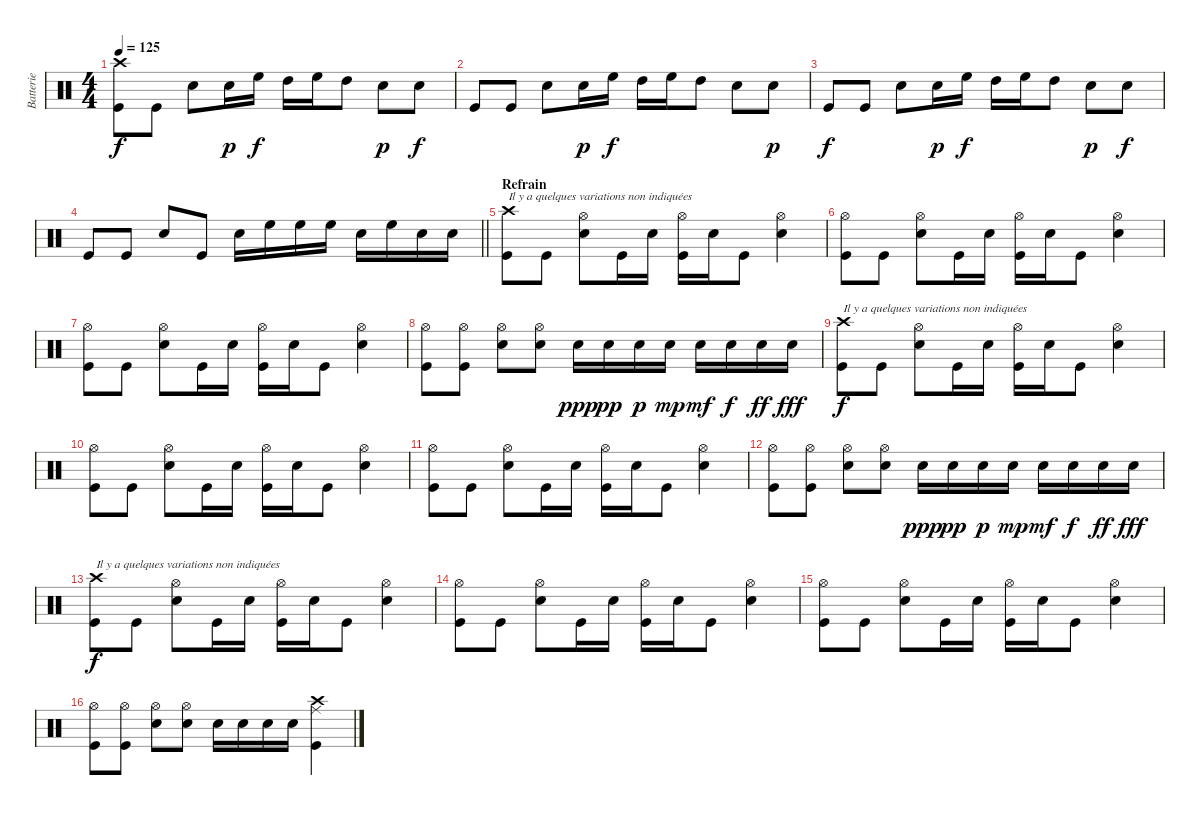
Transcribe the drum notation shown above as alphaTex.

\track ("Batterie" "Batterie") {instrument percussion}
\staff {score}
\articulation defaults
\ts (4 4)
\tempo 125
\clef neutral
\ks c
("Kick (hit)" "Crash high (hit)").8{dy f} "Kick (hit)".8 "Snare (hit) 2".8 "Snare (hit) 2".16{dy p} "High Floor Tom (hit)".16{dy f} "High Tom (hit)".16 "High Floor Tom (hit)".16 "High Tom (hit)".8 "Snare (hit) 2".8{dy p} "Snare (hit) 2".8{dy f} |
"Kick (hit)".8 "Kick (hit)".8 "Snare (hit) 2".8 "Snare (hit) 2".16{dy p} "High Floor Tom (hit)".16{dy f} "High Tom (hit)".16 "High Floor Tom (hit)".16 "High Tom (hit)".8 "Snare (hit) 2".8 "Snare (hit) 2".8{dy p} |
"Kick (hit)".8{dy f} "Kick (hit)".8 "Snare (hit) 2".8 "Snare (hit) 2".16{dy p} "High Floor Tom (hit)".16{dy f} "High Tom (hit)".16 "High Floor Tom (hit)".16 "High Tom (hit)".8 "Snare (hit) 2".8{dy p} "Snare (hit) 2".8{dy f} |
\barLineRight lightlight "Kick (hit)".8 "Kick (hit)".8 "Snare (hit) 2".8 "Kick (hit)".8 "Snare (hit) 2".16 "High Floor Tom (hit)".16 "High Floor Tom (hit)".16 "High Floor Tom (hit)".16 "Snare (hit) 2".16 "High Floor Tom (hit)".16 "Snare (hit) 2".16 "Snare (hit) 2".16
|
\section ("" "Refrain")
("Crash high (hit)" "Kick (hit)").8{txt "Il y a quelques variations non indiquées"} "Kick (hit)".8 ("Snare (hit) 2" "Hi-Hat (open)").8 "Kick (hit)".16 "Snare (hit) 2".16 ("Kick (hit)" "Hi-Hat (open)").16 "Snare (hit) 2".16 "Kick (hit)".8 ("Snare (hit) 2" "Hi-Hat (open)").4 |
("Hi-Hat (open)" "Kick (hit)").8 "Kick (hit)".8 ("Snare (hit) 2" "Hi-Hat (open)").8 "Kick (hit)".16 "Snare (hit) 2".16 ("Kick (hit)" "Hi-Hat (open)").16 "Snare (hit) 2".16 "Kick (hit)".8 ("Snare (hit) 2" "Hi-Hat (open)").4 |
("Hi-Hat (open)" "Kick (hit)").8 "Kick (hit)".8 ("Snare (hit) 2" "Hi-Hat (open)").8 "Kick (hit)".16 "Snare (hit) 2".16 ("Kick (hit)" "Hi-Hat (open)").16 "Snare (hit) 2".16 "Kick (hit)".8 ("Snare (hit) 2" "Hi-Hat (open)").4 |
("Hi-Hat (open)" "Kick (hit)").8 ("Kick (hit)" "Hi-Hat (open)").8 ("Snare (hit) 2" "Hi-Hat (open)").8 ("Hi-Hat (open)" "Snare (hit) 2").8 "Snare (hit) 2".16{dy ppp} "Snare (hit) 2".16{dy pp} "Snare (hit) 2".16{dy p} "Snare (hit) 2".16{dy mp} "Snare (hit) 2".16{dy mf} "Snare (hit) 2".16{dy f} "Snare (hit) 2".16{dy ff} "Snare (hit) 2".16{dy fff} |
("Crash high (hit)" "Kick (hit)").8{txt "Il y a quelques variations non indiquées" dy f} "Kick (hit)".8 ("Snare (hit) 2" "Hi-Hat (open)").8 "Kick (hit)".16 "Snare (hit) 2".16 ("Kick (hit)" "Hi-Hat (open)").16 "Snare (hit) 2".16 "Kick (hit)".8 ("Snare (hit) 2" "Hi-Hat (open)").4 |
("Hi-Hat (open)" "Kick (hit)").8 "Kick (hit)".8 ("Snare (hit) 2" "Hi-Hat (open)").8 "Kick (hit)".16 "Snare (hit) 2".16 ("Kick (hit)" "Hi-Hat (open)").16 "Snare (hit) 2".16 "Kick (hit)".8 ("Snare (hit) 2" "Hi-Hat (open)").4 |
("Hi-Hat (open)" "Kick (hit)").8 "Kick (hit)".8 ("Snare (hit) 2" "Hi-Hat (open)").8 "Kick (hit)".16 "Snare (hit) 2".16 ("Kick (hit)" "Hi-Hat (open)").16 "Snare (hit) 2".16 "Kick (hit)".8 ("Snare (hit) 2" "Hi-Hat (open)").4 |
("Hi-Hat (open)" "Kick (hit)").8 ("Kick (hit)" "Hi-Hat (open)").8 ("Snare (hit) 2" "Hi-Hat (open)").8 ("Hi-Hat (open)" "Snare (hit) 2").8 "Snare (hit) 2".16{dy ppp} "Snare (hit) 2".16{dy pp} "Snare (hit) 2".16{dy p} "Snare (hit) 2".16{dy mp} "Snare (hit) 2".16{dy mf} "Snare (hit) 2".16{dy f} "Snare (hit) 2".16{dy ff} "Snare (hit) 2".16{dy fff} |
("Crash high (hit)" "Kick (hit)").8{txt "Il y a quelques variations non indiquées" dy f} "Kick (hit)".8 ("Snare (hit) 2" "Hi-Hat (open)").8 "Kick (hit)".16 "Snare (hit) 2".16 ("Kick (hit)" "Hi-Hat (open)").16 "Snare (hit) 2".16 "Kick (hit)".8 ("Snare (hit) 2" "Hi-Hat (open)").4 |
("Hi-Hat (open)" "Kick (hit)").8 "Kick (hit)".8 ("Snare (hit) 2" "Hi-Hat (open)").8 "Kick (hit)".16 "Snare (hit) 2".16 ("Kick (hit)" "Hi-Hat (open)").16 "Snare (hit) 2".16 "Kick (hit)".8 ("Snare (hit) 2" "Hi-Hat (open)").4 |
("Hi-Hat (open)" "Kick (hit)").8 "Kick (hit)".8 ("Snare (hit) 2" "Hi-Hat (open)").8 "Kick (hit)".16 "Snare (hit) 2".16 ("Kick (hit)" "Hi-Hat (open)").16 "Snare (hit) 2".16 "Kick (hit)".8 ("Snare (hit) 2" "Hi-Hat (open)").4 |
("Hi-Hat (open)" "Kick (hit)").8 ("Kick (hit)" "Hi-Hat (open)").8 ("Snare (hit) 2" "Hi-Hat (open)").8 ("Hi-Hat (open)" "Snare (hit) 2").8 "Snare (hit) 2".16 "Snare (hit) 2".16 "Snare (hit) 2".16 "Snare (hit) 2".16 ("Crash high (hit)" "Kick (hit)" "Ride (middle)").4
